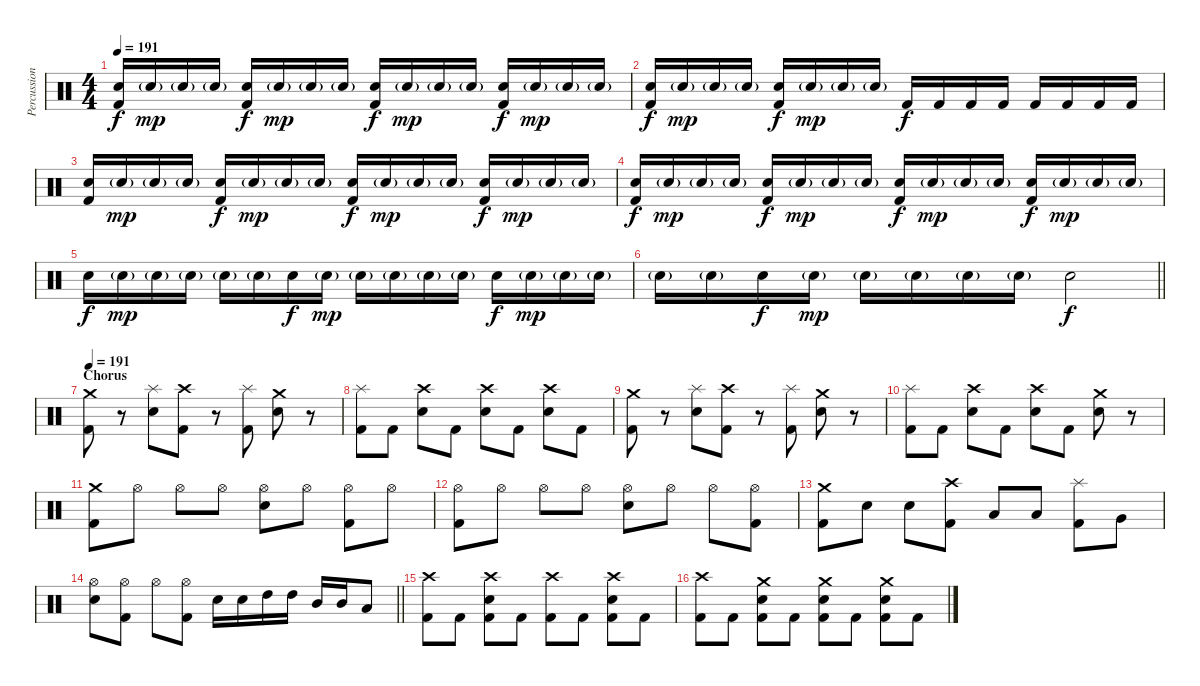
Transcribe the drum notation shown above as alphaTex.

\track ("Percussion" "Percussion") {instrument percussion}
\staff {score}
\articulation defaults
\ts (4 4)
\tempo 191
\clef neutral
\ks c
("Electric Snare (hit)" "Kick (hit) 2").16{dy f} "Electric Snare (hit)"{g}.16{dy mp} "Electric Snare (hit)"{g}.16 "Electric Snare (hit)"{g}.16 ("Electric Snare (hit)" "Kick (hit) 2").16{dy f} "Electric Snare (hit)"{g}.16{dy mp} "Electric Snare (hit)"{g}.16 "Electric Snare (hit)"{g}.16 ("Electric Snare (hit)" "Kick (hit) 2").16{dy f} "Electric Snare (hit)"{g}.16{dy mp} "Electric Snare (hit)"{g}.16 "Electric Snare (hit)"{g}.16 ("Electric Snare (hit)" "Kick (hit) 2").16{dy f} "Electric Snare (hit)"{g}.16{dy mp} "Electric Snare (hit)"{g}.16 "Electric Snare (hit)"{g}.16 |
("Electric Snare (hit)" "Kick (hit) 2").16{dy f} "Electric Snare (hit)"{g}.16{dy mp} "Electric Snare (hit)"{g}.16 "Electric Snare (hit)"{g}.16 ("Electric Snare (hit)" "Kick (hit) 2").16{dy f} "Electric Snare (hit)"{g}.16{dy mp} "Electric Snare (hit)"{g}.16 "Electric Snare (hit)"{g}.16 "Kick (hit) 2".16{dy f} "Kick (hit) 2".16 "Kick (hit) 2".16 "Kick (hit) 2".16 "Kick (hit) 2".16 "Kick (hit) 2".16 "Kick (hit) 2".16 "Kick (hit) 2".16 |
("Electric Snare (hit)" "Kick (hit) 2").16 "Electric Snare (hit)"{g}.16{dy mp} "Electric Snare (hit)"{g}.16 "Electric Snare (hit)"{g}.16 ("Electric Snare (hit)" "Kick (hit) 2").16{dy f} "Electric Snare (hit)"{g}.16{dy mp} "Electric Snare (hit)"{g}.16 "Electric Snare (hit)"{g}.16 ("Electric Snare (hit)" "Kick (hit) 2").16{dy f} "Electric Snare (hit)"{g}.16{dy mp} "Electric Snare (hit)"{g}.16 "Electric Snare (hit)"{g}.16 ("Electric Snare (hit)" "Kick (hit) 2").16{dy f} "Electric Snare (hit)"{g}.16{dy mp} "Electric Snare (hit)"{g}.16 "Electric Snare (hit)"{g}.16 |
("Electric Snare (hit)" "Kick (hit) 2").16{dy f} "Electric Snare (hit)"{g}.16{dy mp} "Electric Snare (hit)"{g}.16 "Electric Snare (hit)"{g}.16 ("Electric Snare (hit)" "Kick (hit) 2").16{dy f} "Electric Snare (hit)"{g}.16{dy mp} "Electric Snare (hit)"{g}.16 "Electric Snare (hit)"{g}.16 ("Electric Snare (hit)" "Kick (hit) 2").16{dy f} "Electric Snare (hit)"{g}.16{dy mp} "Electric Snare (hit)"{g}.16 "Electric Snare (hit)"{g}.16 ("Electric Snare (hit)" "Kick (hit) 2").16{dy f} "Electric Snare (hit)"{g}.16{dy mp} "Electric Snare (hit)"{g}.16 "Electric Snare (hit)"{g}.16 |
"Electric Snare (hit)".16{dy f} "Electric Snare (hit)"{g}.16{dy mp} "Electric Snare (hit)"{g}.16 "Electric Snare (hit)"{g}.16 "Electric Snare (hit)"{g}.16 "Electric Snare (hit)"{g}.16 "Electric Snare (hit)".16{dy f} "Electric Snare (hit)"{g}.16{dy mp} "Electric Snare (hit)"{g}.16 "Electric Snare (hit)"{g}.16 "Electric Snare (hit)"{g}.16 "Electric Snare (hit)"{g}.16 "Electric Snare (hit)".16{dy f} "Electric Snare (hit)"{g}.16{dy mp} "Electric Snare (hit)"{g}.16 "Electric Snare (hit)"{g}.16 |
\barLineRight lightlight "Electric Snare (hit)"{g}.16 "Electric Snare (hit)"{g}.16 "Electric Snare (hit)".16{dy f} "Electric Snare (hit)"{g}.16{dy mp} "Electric Snare (hit)"{g}.16 "Electric Snare (hit)"{g}.16 "Electric Snare (hit)"{g}.16 "Electric Snare (hit)"{g}.16 "Electric Snare (hit)".2{dy f}
|
\section ("" "Chorus")
\tempo 191
("Crash medium (hit)" "Kick (hit) 2").8 r.8 ("Splash (hit)" "Electric Snare (hit)").8 ("Crash high (hit)" "Kick (hit) 2").8 r.8 ("Splash (hit)" "Kick (hit) 2").8 ("Crash medium (hit)" "Electric Snare (hit)").8 r.8 |
("Splash (hit)" "Kick (hit) 2").8 "Kick (hit) 2".8 ("Crash high (hit)" "Electric Snare (hit)").8 "Kick (hit) 2".8 ("Crash high (hit)" "Electric Snare (hit)").8 "Kick (hit) 2".8 ("Crash high (hit)" "Electric Snare (hit)").8 "Kick (hit) 2".8 |
("Crash medium (hit)" "Kick (hit) 2").8 r.8 ("Splash (hit)" "Electric Snare (hit)").8 ("Crash high (hit)" "Kick (hit) 2").8 r.8 ("Splash (hit)" "Kick (hit) 2").8 ("Crash medium (hit)" "Electric Snare (hit)").8 r.8 |
("Splash (hit)" "Kick (hit) 2").8 "Kick (hit) 2".8 ("Crash high (hit)" "Electric Snare (hit)").8 "Kick (hit) 2".8 ("Crash high (hit)" "Electric Snare (hit)").8 "Kick (hit) 2".8 ("Crash medium (hit)" "Electric Snare (hit)").8 r.8 |
("Crash medium (hit)" "Kick (hit) 2").8 "Hi-Hat (open)".8 "Hi-Hat (open)".8 "Hi-Hat (open)".8 ("Hi-Hat (open)" "Electric Snare (hit)").8 "Hi-Hat (open)".8 ("Hi-Hat (open)" "Kick (hit) 2").8 "Hi-Hat (open)".8 |
("Hi-Hat (open)" "Kick (hit) 2").8 "Hi-Hat (open)".8 "Hi-Hat (open)".8 "Hi-Hat (open)".8 ("Hi-Hat (open)" "Electric Snare (hit)").8 "Hi-Hat (open)".8 "Hi-Hat (open)".8 ("Hi-Hat (open)" "Kick (hit) 2").8 |
("Crash medium (hit)" "Kick (hit) 2").8 "Electric Snare (hit)".8 "Electric Snare (hit)".8 ("Crash high (hit)" "Kick (hit) 2").8 "Low Tom (hit)".8 "Low Tom (hit)".8 ("Splash (hit)" "Kick (hit) 2").8 "Very Low Tom (hit)".8 |
\barLineRight lightlight
("Hi-Hat (open)" "Electric Snare (hit)").8 ("Hi-Hat (open)" "Kick (hit) 2").8 "Hi-Hat (open)".8 ("Hi-Hat (open)" "Kick (hit) 2").8 "Electric Snare (hit)".16 "Electric Snare (hit)".16 "High Tom (hit)".16 "High Tom (hit)".16 "Mid Tom (hit)".16 "Mid Tom (hit)".16 "Low Tom (hit)".8 |
("Crash high (hit)" "Kick (hit) 2").8 "Kick (hit) 2".8 ("Crash high (hit)" "Electric Snare (hit)" "Kick (hit) 2").8 "Kick (hit) 2".8 ("Crash high (hit)" "Kick (hit) 2").8 "Kick (hit) 2".8 ("Crash high (hit)" "Electric Snare (hit)" "Kick (hit) 2").8 "Kick (hit) 2".8 |
("Crash high (hit)" "Kick (hit) 2").8 "Kick (hit) 2".8 ("Crash medium (hit)" "Electric Snare (hit)" "Kick (hit) 2").8 "Kick (hit) 2".8 ("Crash medium (hit)" "Electric Snare (hit)" "Kick (hit) 2").8 "Kick (hit) 2".8 ("Crash medium (hit)" "Electric Snare (hit)" "Kick (hit) 2").8 "Kick (hit) 2".8
